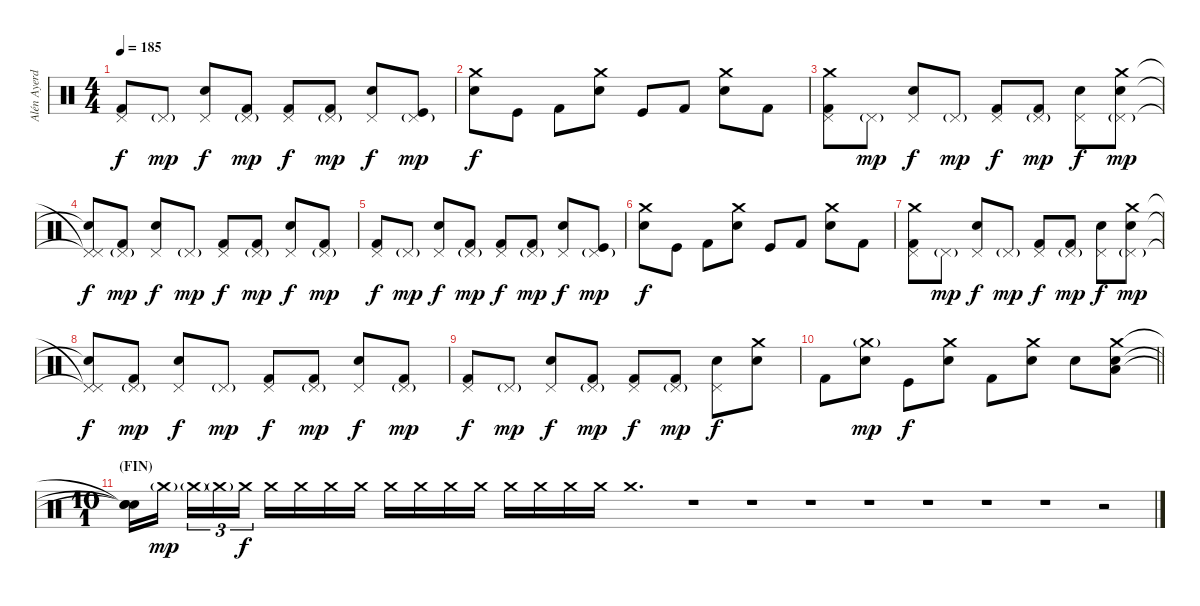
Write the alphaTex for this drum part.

\track ("Alén Ayerdi - Batería" "Alén Ayerd") {instrument percussion}
\staff {score}
\articulation defaults
\ts (4 4)
\tempo 185
\clef neutral
\ks c
("Pedal Hi-Hat (hit)" "Kick (hit) 2").8{dy f} "Pedal Hi-Hat (hit)"{g}.8{dy mp} ("Pedal Hi-Hat (hit)" "Electric Snare (hit)").8{dy f} ("Pedal Hi-Hat (hit)"{g} "Kick (hit) 2").8{dy mp} ("Pedal Hi-Hat (hit)" "Kick (hit) 2").8{dy f} ("Pedal Hi-Hat (hit)"{g} "Kick (hit) 2").8{dy mp} ("Pedal Hi-Hat (hit)" "Electric Snare (hit)").8{dy f} ("Pedal Hi-Hat (hit)"{g} "Kick (hit)").8{dy mp} |
("Crash medium (hit)" "Electric Snare (hit)").8{dy f} "Kick (hit)".8 "Kick (hit) 2".8 ("Crash medium (hit)" "Electric Snare (hit)").8 "Kick (hit)".8 "Kick (hit) 2".8 ("Crash medium (hit)" "Electric Snare (hit)").8 "Kick (hit) 2".8 |
("Crash medium (hit)" "Pedal Hi-Hat (hit)" "Kick (hit) 2").8 "Pedal Hi-Hat (hit)"{g}.8{dy mp} ("Pedal Hi-Hat (hit)" "Electric Snare (hit)").8{dy f} "Pedal Hi-Hat (hit)"{g}.8{dy mp} ("Pedal Hi-Hat (hit)" "Kick (hit) 2").8{dy f} ("Pedal Hi-Hat (hit)"{g} "Kick (hit) 2").8{dy mp} ("Pedal Hi-Hat (hit)" "Electric Snare (hit)").8{dy f} ("Crash medium (hit)" "Pedal Hi-Hat (hit)"{g} "Electric Snare (hit)").8{dy mp} |
("Pedal Hi-Hat (hit)"{t} "Pedal Hi-Hat (hit)"{t} "Snare (hit)"{t}).8{dy f} ("Pedal Hi-Hat (hit)"{g} "Kick (hit) 2").8{dy mp} ("Pedal Hi-Hat (hit)" "Electric Snare (hit)").8{dy f} "Pedal Hi-Hat (hit)"{g}.8{dy mp} ("Pedal Hi-Hat (hit)" "Kick (hit) 2").8{dy f} ("Pedal Hi-Hat (hit)"{g} "Kick (hit) 2").8{dy mp} ("Pedal Hi-Hat (hit)" "Electric Snare (hit)").8{dy f} ("Pedal Hi-Hat (hit)"{g} "Kick (hit) 2").8{dy mp} |
("Pedal Hi-Hat (hit)" "Kick (hit) 2").8{dy f} "Pedal Hi-Hat (hit)"{g}.8{dy mp} ("Pedal Hi-Hat (hit)" "Electric Snare (hit)").8{dy f} ("Pedal Hi-Hat (hit)"{g} "Kick (hit) 2").8{dy mp} ("Pedal Hi-Hat (hit)" "Kick (hit) 2").8{dy f} ("Pedal Hi-Hat (hit)"{g} "Kick (hit) 2").8{dy mp} ("Pedal Hi-Hat (hit)" "Electric Snare (hit)").8{dy f} ("Pedal Hi-Hat (hit)"{g} "Kick (hit)").8{dy mp} |
("Crash medium (hit)" "Electric Snare (hit)").8{dy f} "Kick (hit)".8 "Kick (hit) 2".8 ("Crash medium (hit)" "Electric Snare (hit)").8 "Kick (hit)".8 "Kick (hit) 2".8 ("Crash medium (hit)" "Electric Snare (hit)").8 "Kick (hit) 2".8 |
("Crash medium (hit)" "Pedal Hi-Hat (hit)" "Kick (hit) 2").8 "Pedal Hi-Hat (hit)"{g}.8{dy mp} ("Pedal Hi-Hat (hit)" "Electric Snare (hit)").8{dy f} "Pedal Hi-Hat (hit)"{g}.8{dy mp} ("Pedal Hi-Hat (hit)" "Kick (hit) 2").8{dy f} ("Pedal Hi-Hat (hit)"{g} "Kick (hit) 2").8{dy mp} ("Pedal Hi-Hat (hit)" "Electric Snare (hit)").8{dy f} ("Crash medium (hit)" "Pedal Hi-Hat (hit)"{g} "Electric Snare (hit)").8{dy mp} |
("Pedal Hi-Hat (hit)"{t} "Pedal Hi-Hat (hit)"{t} "Snare (hit)"{t}).8{dy f} ("Pedal Hi-Hat (hit)"{g} "Kick (hit) 2").8{dy mp} ("Pedal Hi-Hat (hit)" "Electric Snare (hit)").8{dy f} "Pedal Hi-Hat (hit)"{g}.8{dy mp} ("Pedal Hi-Hat (hit)" "Kick (hit) 2").8{dy f} ("Pedal Hi-Hat (hit)"{g} "Kick (hit) 2").8{dy mp} ("Pedal Hi-Hat (hit)" "Electric Snare (hit)").8{dy f} ("Pedal Hi-Hat (hit)"{g} "Kick (hit) 2").8{dy mp} |
("Pedal Hi-Hat (hit)" "Kick (hit) 2").8{dy f} "Pedal Hi-Hat (hit)"{g}.8{dy mp} ("Pedal Hi-Hat (hit)" "Electric Snare (hit)").8{dy f} ("Pedal Hi-Hat (hit)"{g} "Kick (hit) 2").8{dy mp} ("Pedal Hi-Hat (hit)" "Kick (hit) 2").8{dy f} ("Pedal Hi-Hat (hit)"{g} "Kick (hit) 2").8{dy mp} ("Pedal Hi-Hat (hit)" "Electric Snare (hit)").8{dy f} ("Crash medium (hit)" "Electric Snare (hit)").8 |
\barLineRight lightlight "Kick (hit) 2".8
("Crash medium (hit)"{g} "Electric Snare (hit)").8{dy mp} "Kick (hit)".8{dy f} ("Crash medium (hit)" "Electric Snare (hit)").8 "Kick (hit) 2".8 ("Crash medium (hit)" "Electric Snare (hit)").8 "Electric Snare (hit)".8 ("Crash medium (hit)" "Snare (hit) 2" "Low Tom (hit)").8 |
\ts (10 1)
\section ("" "(FIN)")
("Snare (hit)"{t} "Snare (hit)"{t} "Snare (hit)"{t}).16 "Crash medium (hit)"{g}.16{dy mp beam splitsecondary} "Crash medium (hit)"{g}.16{tu (3 2)} "Crash medium (hit)"{g}.16{tu (3 2)} "Crash medium (hit)".16{tu (3 2) dy f beam splitsecondary} "Crash medium (hit)".16 "Crash medium (hit)".16 "Crash medium (hit)".16 "Crash medium (hit)".16 "Crash medium (hit)".16 "Crash medium (hit)".16 "Crash medium (hit)".16 "Crash medium (hit)".16 "Crash medium (hit)".16 "Crash medium (hit)".16 "Crash medium (hit)".16 "Crash medium (hit)".16 "Crash medium (hit)".1{d} r.1 r.1 r.1 r.1 r.1 r.1 r.1 r.2
